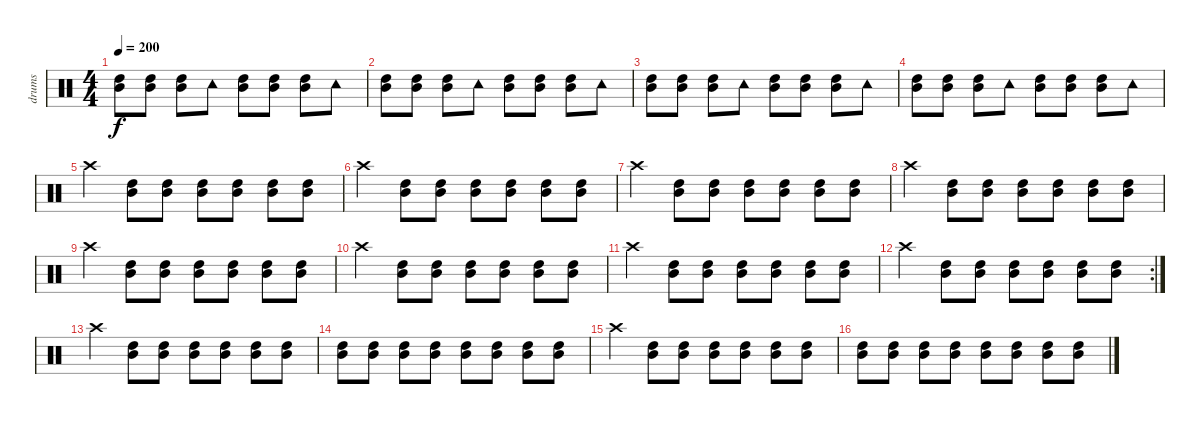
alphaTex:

\track ("drums" "drums") {instrument percussion}
\staff {score}
\articulation defaults
\ts (4 4)
\tempo 200
\clef neutral
\ks c
("Mid Tom (hit)" "High Tom (hit)").8{dy f} ("Mid Tom (hit)" "High Tom (hit)").8 ("Mid Tom (hit)" "High Tom (hit)").8 "Tambourine (hit)".8 ("Mid Tom (hit)" "High Tom (hit)").8 ("Mid Tom (hit)" "High Tom (hit)").8 ("Mid Tom (hit)" "High Tom (hit)").8 "Tambourine (hit)".8 |
("Mid Tom (hit)" "High Tom (hit)").8 ("Mid Tom (hit)" "High Tom (hit)").8 ("Mid Tom (hit)" "High Tom (hit)").8 "Tambourine (hit)".8 ("Mid Tom (hit)" "High Tom (hit)").8 ("Mid Tom (hit)" "High Tom (hit)").8 ("Mid Tom (hit)" "High Tom (hit)").8 "Tambourine (hit)".8 |
("Mid Tom (hit)" "High Tom (hit)").8 ("Mid Tom (hit)" "High Tom (hit)").8 ("Mid Tom (hit)" "High Tom (hit)").8 "Tambourine (hit)".8 ("Mid Tom (hit)" "High Tom (hit)").8 ("Mid Tom (hit)" "High Tom (hit)").8 ("Mid Tom (hit)" "High Tom (hit)").8 "Tambourine (hit)".8 |
("Mid Tom (hit)" "High Tom (hit)").8 ("Mid Tom (hit)" "High Tom (hit)").8 ("Mid Tom (hit)" "High Tom (hit)").8 "Tambourine (hit)".8 ("Mid Tom (hit)" "High Tom (hit)").8 ("Mid Tom (hit)" "High Tom (hit)").8 ("Mid Tom (hit)" "High Tom (hit)").8 "Tambourine (hit)".8 |
"Crash high (hit)".4 ("Mid Tom (hit)" "High Tom (hit)").8 ("Mid Tom (hit)" "High Tom (hit)").8 ("Mid Tom (hit)" "High Tom (hit)").8 ("Mid Tom (hit)" "High Tom (hit)").8 ("Mid Tom (hit)" "High Tom (hit)").8 ("Mid Tom (hit)" "High Tom (hit)").8 |
"Crash high (hit)".4 ("Mid Tom (hit)" "High Tom (hit)").8 ("Mid Tom (hit)" "High Tom (hit)").8 ("Mid Tom (hit)" "High Tom (hit)").8 ("Mid Tom (hit)" "High Tom (hit)").8 ("Mid Tom (hit)" "High Tom (hit)").8 ("Mid Tom (hit)" "High Tom (hit)").8 |
"Crash high (hit)".4 ("Mid Tom (hit)" "High Tom (hit)").8 ("Mid Tom (hit)" "High Tom (hit)").8 ("Mid Tom (hit)" "High Tom (hit)").8 ("Mid Tom (hit)" "High Tom (hit)").8 ("Mid Tom (hit)" "High Tom (hit)").8 ("Mid Tom (hit)" "High Tom (hit)").8 |
"Crash high (hit)".4 ("Mid Tom (hit)" "High Tom (hit)").8 ("Mid Tom (hit)" "High Tom (hit)").8 ("Mid Tom (hit)" "High Tom (hit)").8 ("Mid Tom (hit)" "High Tom (hit)").8 ("Mid Tom (hit)" "High Tom (hit)").8 ("Mid Tom (hit)" "High Tom (hit)").8 |
"Crash high (hit)".4 ("Mid Tom (hit)" "High Tom (hit)").8 ("Mid Tom (hit)" "High Tom (hit)").8 ("Mid Tom (hit)" "High Tom (hit)").8 ("Mid Tom (hit)" "High Tom (hit)").8 ("Mid Tom (hit)" "High Tom (hit)").8 ("Mid Tom (hit)" "High Tom (hit)").8 |
"Crash high (hit)".4 ("Mid Tom (hit)" "High Tom (hit)").8 ("Mid Tom (hit)" "High Tom (hit)").8 ("Mid Tom (hit)" "High Tom (hit)").8 ("Mid Tom (hit)" "High Tom (hit)").8 ("Mid Tom (hit)" "High Tom (hit)").8 ("Mid Tom (hit)" "High Tom (hit)").8 |
"Crash high (hit)".4 ("Mid Tom (hit)" "High Tom (hit)").8 ("Mid Tom (hit)" "High Tom (hit)").8 ("Mid Tom (hit)" "High Tom (hit)").8 ("Mid Tom (hit)" "High Tom (hit)").8 ("Mid Tom (hit)" "High Tom (hit)").8 ("Mid Tom (hit)" "High Tom (hit)").8 |
\rc 2 "Crash high (hit)".4
("Mid Tom (hit)" "High Tom (hit)").8 ("Mid Tom (hit)" "High Tom (hit)").8 ("Mid Tom (hit)" "High Tom (hit)").8 ("Mid Tom (hit)" "High Tom (hit)").8 ("Mid Tom (hit)" "High Tom (hit)").8 ("Mid Tom (hit)" "High Tom (hit)").8 |
"Crash high (hit)".4 ("Mid Tom (hit)" "High Tom (hit)").8 ("Mid Tom (hit)" "High Tom (hit)").8 ("Mid Tom (hit)" "High Tom (hit)").8 ("Mid Tom (hit)" "High Tom (hit)").8 ("Mid Tom (hit)" "High Tom (hit)").8 ("Mid Tom (hit)" "High Tom (hit)").8 |
("Mid Tom (hit)" "High Tom (hit)").8 ("Mid Tom (hit)" "High Tom (hit)").8 ("Mid Tom (hit)" "High Tom (hit)").8 ("Mid Tom (hit)" "High Tom (hit)").8 ("Mid Tom (hit)" "High Tom (hit)").8 ("Mid Tom (hit)" "High Tom (hit)").8 ("Mid Tom (hit)" "High Tom (hit)").8 ("Mid Tom (hit)" "High Tom (hit)").8 |
"Crash high (hit)".4 ("Mid Tom (hit)" "High Tom (hit)").8 ("Mid Tom (hit)" "High Tom (hit)").8 ("Mid Tom (hit)" "High Tom (hit)").8 ("Mid Tom (hit)" "High Tom (hit)").8 ("Mid Tom (hit)" "High Tom (hit)").8 ("Mid Tom (hit)" "High Tom (hit)").8 |
("Mid Tom (hit)" "High Tom (hit)").8 ("Mid Tom (hit)" "High Tom (hit)").8 ("Mid Tom (hit)" "High Tom (hit)").8 ("Mid Tom (hit)" "High Tom (hit)").8 ("Mid Tom (hit)" "High Tom (hit)").8 ("Mid Tom (hit)" "High Tom (hit)").8 ("Mid Tom (hit)" "High Tom (hit)").8 ("Mid Tom (hit)" "High Tom (hit)").8
